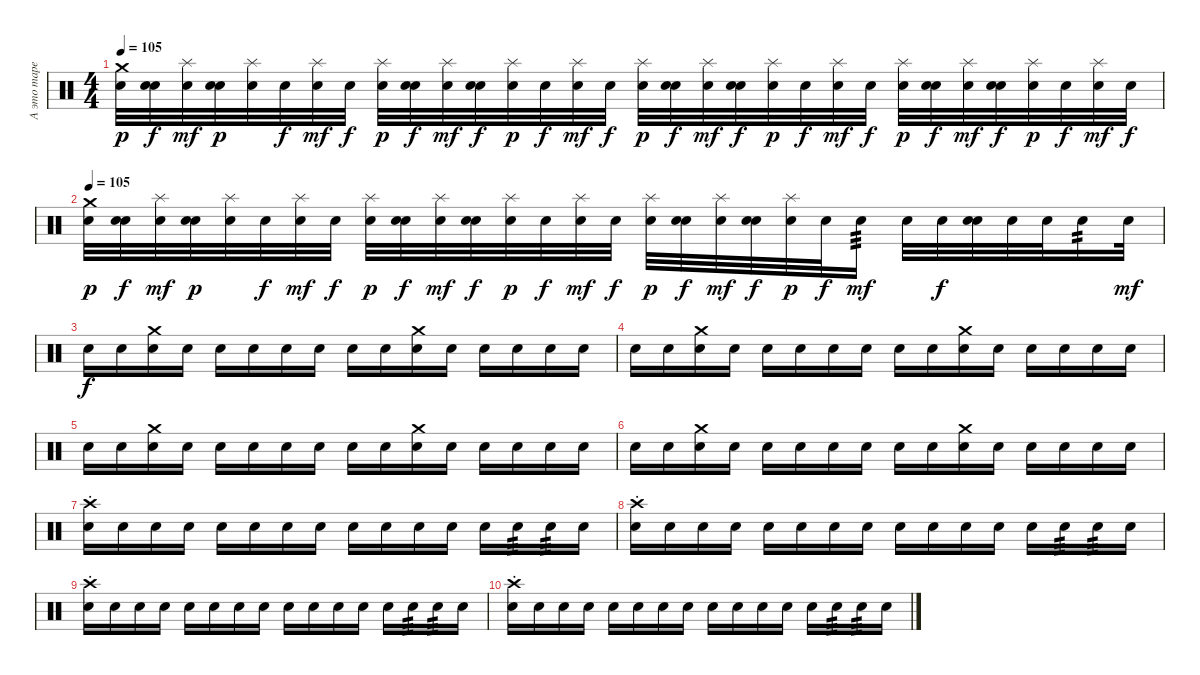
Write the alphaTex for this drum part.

\track ("А это тарелки уже" "А это таре") {instrument percussion}
\staff {score}
\articulation defaults
\ts (4 4)
\tempo 105
\clef neutral
\ks c
("Crash medium (hit)" "Snare (hit)").32{dy p} ("Snare (hit)" "Snare (hit)").32{dy f} ("Splash (hit)" "Snare (hit)").32{dy mf} ("Snare (hit)" "Snare (hit)").32{dy p} ("Splash (hit)" "Snare (hit)").32 "Snare (hit)".32{dy f} ("Splash (hit)" "Snare (hit)").32{dy mf} "Snare (hit)".32{dy f} ("Splash (hit)" "Snare (hit)").32{dy p} ("Snare (hit)" "Snare (hit)").32{dy f} ("Splash (hit)" "Snare (hit)").32{dy mf} ("Snare (hit)" "Snare (hit)").32{dy f} ("Splash (hit)" "Snare (hit)").32{dy p} "Snare (hit)".32{dy f} ("Splash (hit)" "Snare (hit)").32{dy mf} "Snare (hit)".32{dy f} ("Splash (hit)" "Snare (hit)").32{dy p} ("Snare (hit)" "Snare (hit)").32{dy f} ("Splash (hit)" "Snare (hit)").32{dy mf} ("Snare (hit)" "Snare (hit)").32{dy f} ("Splash (hit)" "Snare (hit)").32{dy p} "Snare (hit)".32{dy f} ("Splash (hit)" "Snare (hit)").32{dy mf} "Snare (hit)".32{dy f} ("Splash (hit)" "Snare (hit)").32{dy p} ("Snare (hit)" "Snare (hit)").32{dy f} ("Splash (hit)" "Snare (hit)").32{dy mf} ("Snare (hit)" "Snare (hit)").32{dy f} ("Splash (hit)" "Snare (hit)").32{dy p} "Snare (hit)".32{dy f} ("Splash (hit)" "Snare (hit)").32{dy mf} "Snare (hit)".32{dy f} |
\tempo 105
("Crash medium (hit)" "Snare (hit)").32{dy p} ("Snare (hit)" "Snare (hit)").32{dy f} ("Splash (hit)" "Snare (hit)").32{dy mf} ("Snare (hit)" "Snare (hit)").32{dy p} ("Splash (hit)" "Snare (hit)").32 "Snare (hit)".32{dy f} ("Splash (hit)" "Snare (hit)").32{dy mf} "Snare (hit)".32{dy f} ("Splash (hit)" "Snare (hit)").32{dy p} ("Snare (hit)" "Snare (hit)").32{dy f} ("Splash (hit)" "Snare (hit)").32{dy mf} ("Snare (hit)" "Snare (hit)").32{dy f} ("Splash (hit)" "Snare (hit)").32{dy p} "Snare (hit)".32{dy f} ("Splash (hit)" "Snare (hit)").32{dy mf} "Snare (hit)".32{dy f} ("Splash (hit)" "Snare (hit)").32{dy p} ("Snare (hit)" "Snare (hit)").32{dy f} ("Splash (hit)" "Snare (hit)").32{dy mf} ("Snare (hit)" "Snare (hit)").32{dy f} ("Splash (hit)" "Snare (hit)").32{dy p} "Snare (hit)".32{dy f} "Snare (hit)".16{tp 3 dy mf} "Snare (hit)".32 "Snare (hit)".32{dy f} ("Snare (hit)" "Snare (hit)").32 "Snare (hit)".32 "Snare (hit)".32 "Snare (hit)".16{tp 2} "Snare (hit)".32{dy mf} |
"Snare (hit)".16{dy f} "Snare (hit)".16 ("Crash medium (hit)" "Snare (hit)").16 "Snare (hit)".16 "Snare (hit)".16 "Snare (hit)".16 "Snare (hit)".16 "Snare (hit)".16 "Snare (hit)".16 "Snare (hit)".16 ("Crash medium (hit)" "Snare (hit)").16 "Snare (hit)".16 "Snare (hit)".16 "Snare (hit)".16 "Snare (hit)".16 "Snare (hit)".16 |
"Snare (hit)".16 "Snare (hit)".16 ("Crash medium (hit)" "Snare (hit)").16 "Snare (hit)".16 "Snare (hit)".16 "Snare (hit)".16 "Snare (hit)".16 "Snare (hit)".16 "Snare (hit)".16 "Snare (hit)".16 ("Crash medium (hit)" "Snare (hit)").16 "Snare (hit)".16 "Snare (hit)".16 "Snare (hit)".16 "Snare (hit)".16 "Snare (hit)".16 |
"Snare (hit)".16 "Snare (hit)".16 ("Crash medium (hit)" "Snare (hit)").16 "Snare (hit)".16 "Snare (hit)".16 "Snare (hit)".16 "Snare (hit)".16 "Snare (hit)".16 "Snare (hit)".16 "Snare (hit)".16 ("Crash medium (hit)" "Snare (hit)").16 "Snare (hit)".16 "Snare (hit)".16 "Snare (hit)".16 "Snare (hit)".16 "Snare (hit)".16 |
"Snare (hit)".16 "Snare (hit)".16 ("Crash medium (hit)" "Snare (hit)").16 "Snare (hit)".16 "Snare (hit)".16 "Snare (hit)".16 "Snare (hit)".16 "Snare (hit)".16 "Snare (hit)".16 "Snare (hit)".16 ("Crash medium (hit)" "Snare (hit)").16 "Snare (hit)".16 "Snare (hit)".16 "Snare (hit)".16 "Snare (hit)".16 "Snare (hit)".16 |
("Crash high (hit)"{st} "Snare (hit)").16 "Snare (hit)".16 "Snare (hit)".16 "Snare (hit)".16 "Snare (hit)".16 "Snare (hit)".16 "Snare (hit)".16 "Snare (hit)".16 "Snare (hit)".16 "Snare (hit)".16 "Snare (hit)".16 "Snare (hit)".16 "Snare (hit)".16 "Snare (hit)".16{tp 3} "Snare (hit)".16{tp 3} "Snare (hit)".16 |
("Crash high (hit)"{st} "Snare (hit)").16 "Snare (hit)".16 "Snare (hit)".16 "Snare (hit)".16 "Snare (hit)".16 "Snare (hit)".16 "Snare (hit)".16 "Snare (hit)".16 "Snare (hit)".16 "Snare (hit)".16 "Snare (hit)".16 "Snare (hit)".16 "Snare (hit)".16 "Snare (hit)".16{tp 3} "Snare (hit)".16{tp 3} "Snare (hit)".16 |
("Crash high (hit)"{st} "Snare (hit)").16 "Snare (hit)".16 "Snare (hit)".16 "Snare (hit)".16 "Snare (hit)".16 "Snare (hit)".16 "Snare (hit)".16 "Snare (hit)".16 "Snare (hit)".16 "Snare (hit)".16 "Snare (hit)".16 "Snare (hit)".16 "Snare (hit)".16 "Snare (hit)".16{tp 3} "Snare (hit)".16{tp 3} "Snare (hit)".16 |
("Crash high (hit)"{st} "Snare (hit)").16 "Snare (hit)".16 "Snare (hit)".16 "Snare (hit)".16 "Snare (hit)".16 "Snare (hit)".16 "Snare (hit)".16 "Snare (hit)".16 "Snare (hit)".16 "Snare (hit)".16 "Snare (hit)".16 "Snare (hit)".16 "Snare (hit)".16 "Snare (hit)".16{tp 3} "Snare (hit)".16{tp 3} "Snare (hit)".16
